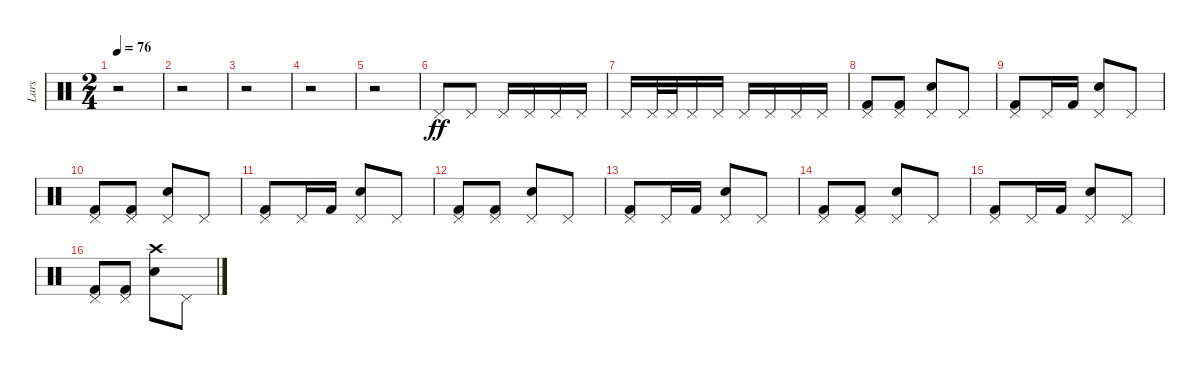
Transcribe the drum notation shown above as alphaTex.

\track ("Lars" "Lars") {instrument percussion}
\staff {score}
\articulation defaults
\ts (2 4)
\tempo 76
\clef neutral
\ks c
r.2{dy fff} |
r.2 |
r.2 |
r.2 |
r.2 |
"Pedal Hi-Hat (hit)".8{dy ff} "Pedal Hi-Hat (hit)".8 "Pedal Hi-Hat (hit)".16 "Pedal Hi-Hat (hit)".16 "Pedal Hi-Hat (hit)".16 "Pedal Hi-Hat (hit)".16 |
"Pedal Hi-Hat (hit)".16 "Pedal Hi-Hat (hit)".32 "Pedal Hi-Hat (hit)".32 "Pedal Hi-Hat (hit)".16 "Pedal Hi-Hat (hit)".16 "Pedal Hi-Hat (hit)".16 "Pedal Hi-Hat (hit)".16 "Pedal Hi-Hat (hit)".16 "Pedal Hi-Hat (hit)".16 |
("Pedal Hi-Hat (hit)" "Kick (hit) 2").8 ("Pedal Hi-Hat (hit)" "Kick (hit) 2").8 ("Pedal Hi-Hat (hit)" "Snare (hit) 2").8 "Pedal Hi-Hat (hit)".8 |
("Pedal Hi-Hat (hit)" "Kick (hit) 2").8 "Pedal Hi-Hat (hit)".16 "Kick (hit) 2".16 ("Pedal Hi-Hat (hit)" "Snare (hit) 2").8 "Pedal Hi-Hat (hit)".8 |
("Pedal Hi-Hat (hit)" "Kick (hit) 2").8 ("Pedal Hi-Hat (hit)" "Kick (hit) 2").8 ("Pedal Hi-Hat (hit)" "Snare (hit) 2").8 "Pedal Hi-Hat (hit)".8 |
("Pedal Hi-Hat (hit)" "Kick (hit) 2").8 "Pedal Hi-Hat (hit)".16 "Kick (hit) 2".16 ("Pedal Hi-Hat (hit)" "Snare (hit) 2").8 "Pedal Hi-Hat (hit)".8 |
("Pedal Hi-Hat (hit)" "Kick (hit) 2").8 ("Pedal Hi-Hat (hit)" "Kick (hit) 2").8 ("Pedal Hi-Hat (hit)" "Snare (hit) 2").8 "Pedal Hi-Hat (hit)".8 |
("Pedal Hi-Hat (hit)" "Kick (hit) 2").8 "Pedal Hi-Hat (hit)".16 "Kick (hit) 2".16 ("Pedal Hi-Hat (hit)" "Snare (hit) 2").8 "Pedal Hi-Hat (hit)".8 |
("Pedal Hi-Hat (hit)" "Kick (hit) 2").8 ("Pedal Hi-Hat (hit)" "Kick (hit) 2").8 ("Pedal Hi-Hat (hit)" "Snare (hit) 2").8 "Pedal Hi-Hat (hit)".8 |
("Pedal Hi-Hat (hit)" "Kick (hit) 2").8 "Pedal Hi-Hat (hit)".16 "Kick (hit) 2".16 ("Pedal Hi-Hat (hit)" "Snare (hit) 2").8 "Pedal Hi-Hat (hit)".8 |
("Pedal Hi-Hat (hit)" "Kick (hit) 2").8 ("Pedal Hi-Hat (hit)" "Kick (hit) 2").8 ("Crash high (hit)" "Snare (hit) 2").8 "Pedal Hi-Hat (hit)".8
